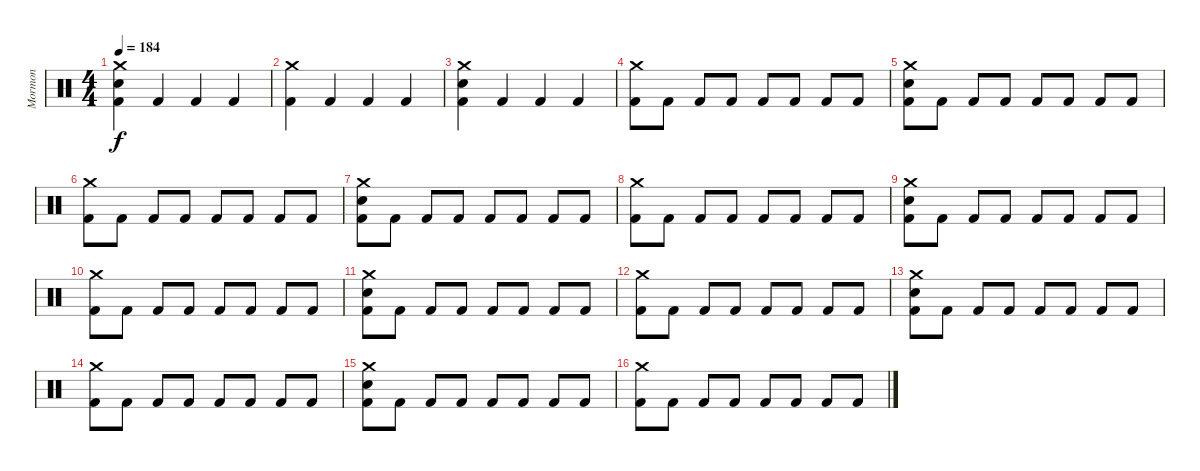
\track ("Mormon" "Mormon") {solo instrument percussion}
\staff {score}
\articulation defaults
\ts (4 4)
\tempo 184
\clef neutral
\ks c
("Crash medium (hit)" "Snare (hit) 2" "Kick (hit) 2").4{dy f} "Kick (hit) 2".4 "Kick (hit) 2".4 "Kick (hit) 2".4 |
("Crash medium (hit)" "Kick (hit) 2").4 "Kick (hit) 2".4 "Kick (hit) 2".4 "Kick (hit) 2".4 |
("Crash medium (hit)" "Snare (hit) 2" "Kick (hit) 2").4 "Kick (hit) 2".4 "Kick (hit) 2".4 "Kick (hit) 2".4 |
("Crash medium (hit)" "Kick (hit) 2").8 "Kick (hit) 2".8 "Kick (hit) 2".8 "Kick (hit) 2".8 "Kick (hit) 2".8 "Kick (hit) 2".8 "Kick (hit) 2".8 "Kick (hit) 2".8 |
("Crash medium (hit)" "Snare (hit) 2" "Kick (hit) 2").8 "Kick (hit) 2".8 "Kick (hit) 2".8 "Kick (hit) 2".8 "Kick (hit) 2".8 "Kick (hit) 2".8 "Kick (hit) 2".8 "Kick (hit) 2".8 |
("Crash medium (hit)" "Kick (hit) 2").8 "Kick (hit) 2".8 "Kick (hit) 2".8 "Kick (hit) 2".8 "Kick (hit) 2".8 "Kick (hit) 2".8 "Kick (hit) 2".8 "Kick (hit) 2".8 |
("Crash medium (hit)" "Snare (hit) 2" "Kick (hit) 2").8 "Kick (hit) 2".8 "Kick (hit) 2".8 "Kick (hit) 2".8 "Kick (hit) 2".8 "Kick (hit) 2".8 "Kick (hit) 2".8 "Kick (hit) 2".8 |
("Crash medium (hit)" "Kick (hit) 2").8 "Kick (hit) 2".8 "Kick (hit) 2".8 "Kick (hit) 2".8 "Kick (hit) 2".8 "Kick (hit) 2".8 "Kick (hit) 2".8 "Kick (hit) 2".8 |
("Crash medium (hit)" "Snare (hit) 2" "Kick (hit) 2").8 "Kick (hit) 2".8 "Kick (hit) 2".8 "Kick (hit) 2".8 "Kick (hit) 2".8 "Kick (hit) 2".8 "Kick (hit) 2".8 "Kick (hit) 2".8 |
("Crash medium (hit)" "Kick (hit) 2").8 "Kick (hit) 2".8 "Kick (hit) 2".8 "Kick (hit) 2".8 "Kick (hit) 2".8 "Kick (hit) 2".8 "Kick (hit) 2".8 "Kick (hit) 2".8 |
("Crash medium (hit)" "Snare (hit) 2" "Kick (hit) 2").8 "Kick (hit) 2".8 "Kick (hit) 2".8 "Kick (hit) 2".8 "Kick (hit) 2".8 "Kick (hit) 2".8 "Kick (hit) 2".8 "Kick (hit) 2".8 |
("Crash medium (hit)" "Kick (hit) 2").8 "Kick (hit) 2".8 "Kick (hit) 2".8 "Kick (hit) 2".8 "Kick (hit) 2".8 "Kick (hit) 2".8 "Kick (hit) 2".8 "Kick (hit) 2".8 |
("Crash medium (hit)" "Snare (hit) 2" "Kick (hit) 2").8 "Kick (hit) 2".8 "Kick (hit) 2".8 "Kick (hit) 2".8 "Kick (hit) 2".8 "Kick (hit) 2".8 "Kick (hit) 2".8 "Kick (hit) 2".8 |
("Crash medium (hit)" "Kick (hit) 2").8 "Kick (hit) 2".8 "Kick (hit) 2".8 "Kick (hit) 2".8 "Kick (hit) 2".8 "Kick (hit) 2".8 "Kick (hit) 2".8 "Kick (hit) 2".8 |
("Crash medium (hit)" "Snare (hit) 2" "Kick (hit) 2").8 "Kick (hit) 2".8 "Kick (hit) 2".8 "Kick (hit) 2".8 "Kick (hit) 2".8 "Kick (hit) 2".8 "Kick (hit) 2".8 "Kick (hit) 2".8 |
("Crash medium (hit)" "Kick (hit) 2").8 "Kick (hit) 2".8 "Kick (hit) 2".8 "Kick (hit) 2".8 "Kick (hit) 2".8 "Kick (hit) 2".8 "Kick (hit) 2".8 "Kick (hit) 2".8
